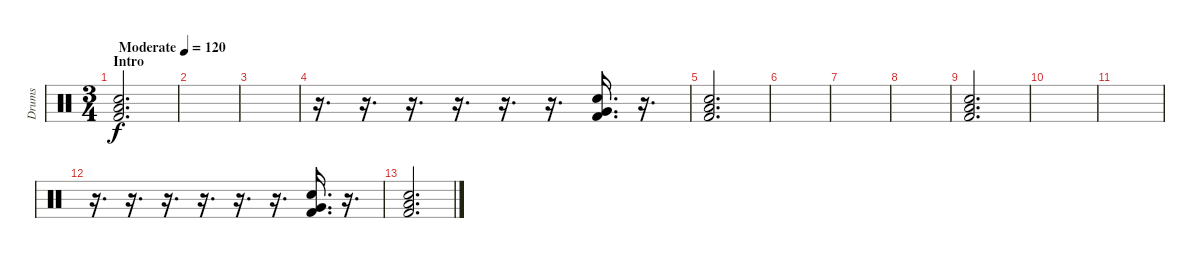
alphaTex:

\track ("Drums" "Drums") {instrument percussion}
\staff {score}
\articulation defaults
\ts (3 4)
\section ("" "Intro")
\tempo (120 "Moderate")
\tempo 108
\tempo (120 "Moderate")
\clef neutral
\ks c
("Snare (hit) 2" "Low Floor Tom (hit)" "Kick (hit) 2").2{d dy f} |
|
|
r.16{d} r.16{d} r.16{d} r.16{d} r.16{d} r.16{d} ("Snare (hit) 2" "Very Low Tom (hit)" "Kick (hit) 2").16{d} r.16{d} |
("Snare (hit) 2" "Low Floor Tom (hit)" "Kick (hit) 2").2{d} |
|
|
|
("Snare (hit) 2" "Low Floor Tom (hit)" "Kick (hit) 2").2{d} |
|
|
r.16{d} r.16{d} r.16{d} r.16{d} r.16{d} r.16{d} ("Snare (hit) 2" "Very Low Tom (hit)" "Kick (hit) 2").16{d} r.16{d} |
("Snare (hit) 2" "Low Floor Tom (hit)" "Kick (hit) 2").2{d}
